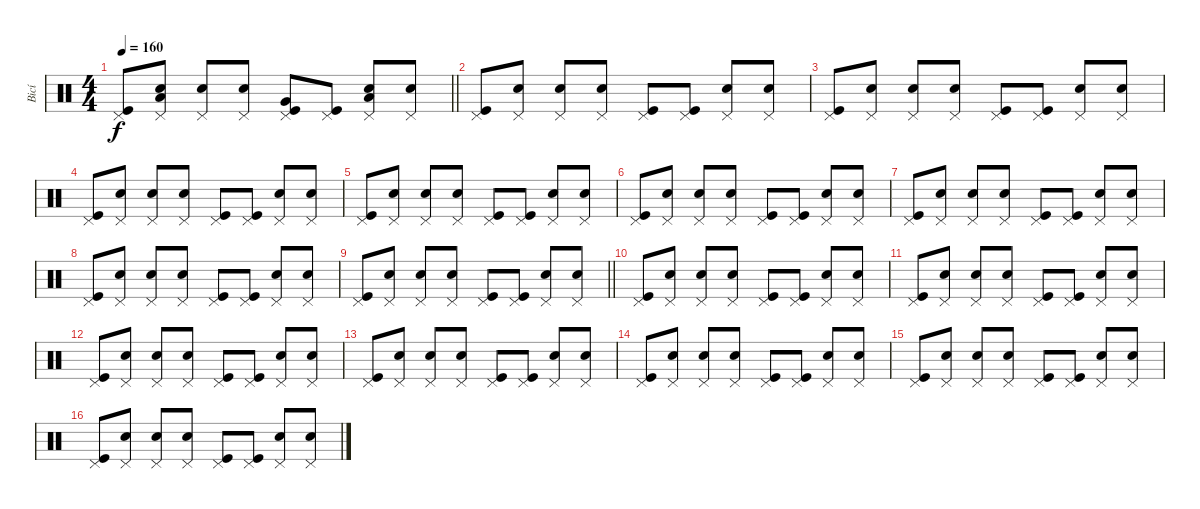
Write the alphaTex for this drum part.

\track ("Bicí" "Bicí") {instrument percussion}
\staff {score}
\articulation defaults
\ts (4 4)
\tempo 160
\clef neutral
\barLineRight lightlight
\ks c
("Pedal Hi-Hat (hit)" "Kick (hit)").8{dy f} ("Pedal Hi-Hat (hit)" "Low Tom (hit)" "Snare (hit)").8 ("Pedal Hi-Hat (hit)" "Electric Snare (hit)").8 ("Pedal Hi-Hat (hit)" "Snare (hit)").8 ("Pedal Hi-Hat (hit)" "Very Low Tom (hit)" "Kick (hit)").8 ("Pedal Hi-Hat (hit)" "Kick (hit)").8 ("Pedal Hi-Hat (hit)" "Low Floor Tom (hit)" "Electric Snare (hit)").8 ("Pedal Hi-Hat (hit)" "Snare (hit)").8 |
\section ("" "")
("Pedal Hi-Hat (hit)" "Kick (hit)").8 ("Pedal Hi-Hat (hit)" "Snare (hit)").8 ("Pedal Hi-Hat (hit)" "Electric Snare (hit)").8 ("Pedal Hi-Hat (hit)" "Snare (hit)").8 ("Pedal Hi-Hat (hit)" "Kick (hit)").8 ("Pedal Hi-Hat (hit)" "Kick (hit)").8 ("Pedal Hi-Hat (hit)" "Electric Snare (hit)").8 ("Pedal Hi-Hat (hit)" "Snare (hit)").8 |
("Pedal Hi-Hat (hit)" "Kick (hit)").8 ("Pedal Hi-Hat (hit)" "Snare (hit)").8 ("Pedal Hi-Hat (hit)" "Electric Snare (hit)").8 ("Pedal Hi-Hat (hit)" "Snare (hit)").8 ("Pedal Hi-Hat (hit)" "Kick (hit)").8 ("Pedal Hi-Hat (hit)" "Kick (hit)").8 ("Pedal Hi-Hat (hit)" "Electric Snare (hit)").8 ("Pedal Hi-Hat (hit)" "Snare (hit)").8 |
("Pedal Hi-Hat (hit)" "Kick (hit)").8 ("Pedal Hi-Hat (hit)" "Snare (hit)").8 ("Pedal Hi-Hat (hit)" "Electric Snare (hit)").8 ("Pedal Hi-Hat (hit)" "Snare (hit)").8 ("Pedal Hi-Hat (hit)" "Kick (hit)").8 ("Pedal Hi-Hat (hit)" "Kick (hit)").8 ("Pedal Hi-Hat (hit)" "Electric Snare (hit)").8 ("Pedal Hi-Hat (hit)" "Snare (hit)").8 |
("Pedal Hi-Hat (hit)" "Kick (hit)").8 ("Pedal Hi-Hat (hit)" "Snare (hit)").8 ("Pedal Hi-Hat (hit)" "Electric Snare (hit)").8 ("Pedal Hi-Hat (hit)" "Snare (hit)").8 ("Pedal Hi-Hat (hit)" "Kick (hit)").8 ("Pedal Hi-Hat (hit)" "Kick (hit)").8 ("Pedal Hi-Hat (hit)" "Electric Snare (hit)").8 ("Pedal Hi-Hat (hit)" "Snare (hit)").8 |
("Pedal Hi-Hat (hit)" "Kick (hit)").8 ("Pedal Hi-Hat (hit)" "Snare (hit)").8 ("Pedal Hi-Hat (hit)" "Electric Snare (hit)").8 ("Pedal Hi-Hat (hit)" "Snare (hit)").8 ("Pedal Hi-Hat (hit)" "Kick (hit)").8 ("Pedal Hi-Hat (hit)" "Kick (hit)").8 ("Pedal Hi-Hat (hit)" "Electric Snare (hit)").8 ("Pedal Hi-Hat (hit)" "Snare (hit)").8 |
("Pedal Hi-Hat (hit)" "Kick (hit)").8 ("Pedal Hi-Hat (hit)" "Snare (hit)").8 ("Pedal Hi-Hat (hit)" "Electric Snare (hit)").8 ("Pedal Hi-Hat (hit)" "Snare (hit)").8 ("Pedal Hi-Hat (hit)" "Kick (hit)").8 ("Pedal Hi-Hat (hit)" "Kick (hit)").8 ("Pedal Hi-Hat (hit)" "Electric Snare (hit)").8 ("Pedal Hi-Hat (hit)" "Snare (hit)").8 |
("Pedal Hi-Hat (hit)" "Kick (hit)").8 ("Pedal Hi-Hat (hit)" "Snare (hit)").8 ("Pedal Hi-Hat (hit)" "Electric Snare (hit)").8 ("Pedal Hi-Hat (hit)" "Snare (hit)").8 ("Pedal Hi-Hat (hit)" "Kick (hit)").8 ("Pedal Hi-Hat (hit)" "Kick (hit)").8 ("Pedal Hi-Hat (hit)" "Electric Snare (hit)").8 ("Pedal Hi-Hat (hit)" "Snare (hit)").8 |
\barLineRight lightlight
("Pedal Hi-Hat (hit)" "Kick (hit)").8 ("Pedal Hi-Hat (hit)" "Snare (hit)").8 ("Pedal Hi-Hat (hit)" "Electric Snare (hit)").8 ("Pedal Hi-Hat (hit)" "Snare (hit)").8 ("Pedal Hi-Hat (hit)" "Kick (hit)").8 ("Pedal Hi-Hat (hit)" "Kick (hit)").8 ("Pedal Hi-Hat (hit)" "Electric Snare (hit)").8 ("Pedal Hi-Hat (hit)" "Snare (hit)").8 |
("Pedal Hi-Hat (hit)" "Kick (hit)").8 ("Pedal Hi-Hat (hit)" "Snare (hit)").8 ("Pedal Hi-Hat (hit)" "Electric Snare (hit)").8 ("Pedal Hi-Hat (hit)" "Snare (hit)").8 ("Pedal Hi-Hat (hit)" "Kick (hit)").8 ("Pedal Hi-Hat (hit)" "Kick (hit)").8 ("Pedal Hi-Hat (hit)" "Electric Snare (hit)").8 ("Pedal Hi-Hat (hit)" "Snare (hit)").8 |
("Pedal Hi-Hat (hit)" "Kick (hit)").8 ("Pedal Hi-Hat (hit)" "Snare (hit)").8 ("Pedal Hi-Hat (hit)" "Electric Snare (hit)").8 ("Pedal Hi-Hat (hit)" "Snare (hit)").8 ("Pedal Hi-Hat (hit)" "Kick (hit)").8 ("Pedal Hi-Hat (hit)" "Kick (hit)").8 ("Pedal Hi-Hat (hit)" "Electric Snare (hit)").8 ("Pedal Hi-Hat (hit)" "Snare (hit)").8 |
("Pedal Hi-Hat (hit)" "Kick (hit)").8 ("Pedal Hi-Hat (hit)" "Snare (hit)").8 ("Pedal Hi-Hat (hit)" "Electric Snare (hit)").8 ("Pedal Hi-Hat (hit)" "Snare (hit)").8 ("Pedal Hi-Hat (hit)" "Kick (hit)").8 ("Pedal Hi-Hat (hit)" "Kick (hit)").8 ("Pedal Hi-Hat (hit)" "Electric Snare (hit)").8 ("Pedal Hi-Hat (hit)" "Snare (hit)").8 |
("Pedal Hi-Hat (hit)" "Kick (hit)").8 ("Pedal Hi-Hat (hit)" "Snare (hit)").8 ("Pedal Hi-Hat (hit)" "Electric Snare (hit)").8 ("Pedal Hi-Hat (hit)" "Snare (hit)").8 ("Pedal Hi-Hat (hit)" "Kick (hit)").8 ("Pedal Hi-Hat (hit)" "Kick (hit)").8 ("Pedal Hi-Hat (hit)" "Electric Snare (hit)").8 ("Pedal Hi-Hat (hit)" "Snare (hit)").8 |
("Pedal Hi-Hat (hit)" "Kick (hit)").8 ("Pedal Hi-Hat (hit)" "Snare (hit)").8 ("Pedal Hi-Hat (hit)" "Electric Snare (hit)").8 ("Pedal Hi-Hat (hit)" "Snare (hit)").8 ("Pedal Hi-Hat (hit)" "Kick (hit)").8 ("Pedal Hi-Hat (hit)" "Kick (hit)").8 ("Pedal Hi-Hat (hit)" "Electric Snare (hit)").8 ("Pedal Hi-Hat (hit)" "Snare (hit)").8 |
("Pedal Hi-Hat (hit)" "Kick (hit)").8 ("Pedal Hi-Hat (hit)" "Snare (hit)").8 ("Pedal Hi-Hat (hit)" "Electric Snare (hit)").8 ("Pedal Hi-Hat (hit)" "Snare (hit)").8 ("Pedal Hi-Hat (hit)" "Kick (hit)").8 ("Pedal Hi-Hat (hit)" "Kick (hit)").8 ("Pedal Hi-Hat (hit)" "Electric Snare (hit)").8 ("Pedal Hi-Hat (hit)" "Snare (hit)").8 |
("Pedal Hi-Hat (hit)" "Kick (hit)").8 ("Pedal Hi-Hat (hit)" "Snare (hit)").8 ("Pedal Hi-Hat (hit)" "Electric Snare (hit)").8 ("Pedal Hi-Hat (hit)" "Snare (hit)").8 ("Pedal Hi-Hat (hit)" "Kick (hit)").8 ("Pedal Hi-Hat (hit)" "Kick (hit)").8 ("Pedal Hi-Hat (hit)" "Electric Snare (hit)").8 ("Pedal Hi-Hat (hit)" "Snare (hit)").8
